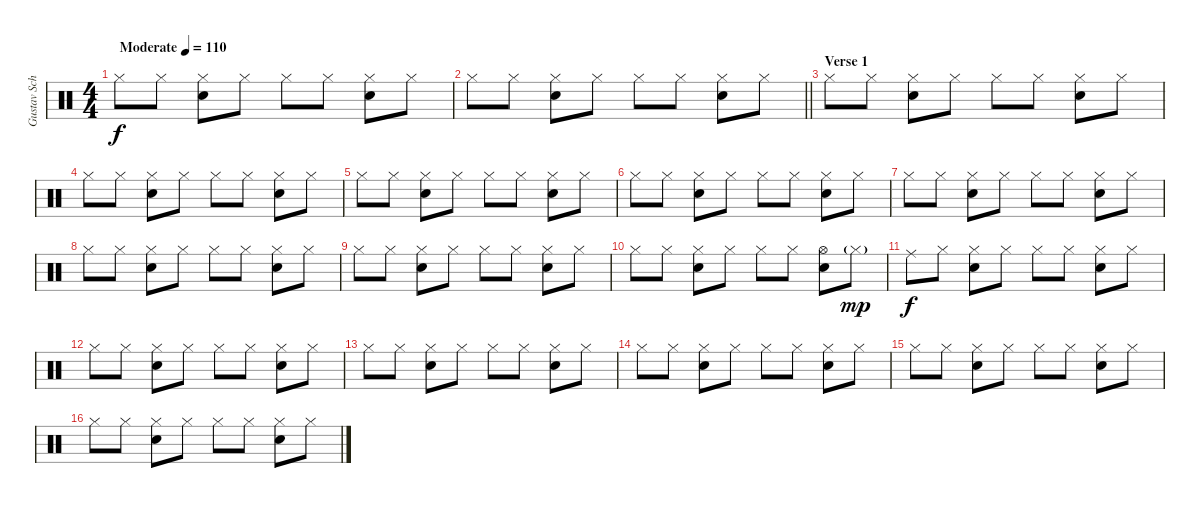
\track ("Gustav Schafer" "Gustav Sch") {instrument percussion}
\staff {score}
\articulation defaults
\ts (4 4)
\tempo (110 "Moderate")
\clef neutral
\ks c "Hi-Hat (closed)".8{dy f} "Hi-Hat (closed)".8
("Hi-Hat (closed)" "Snare (hit) 2").8 "Hi-Hat (closed)".8 "Hi-Hat (closed)".8 "Hi-Hat (closed)".8 ("Hi-Hat (closed)" "Snare (hit) 2").8 "Hi-Hat (closed)".8 |
\barLineRight lightlight "Hi-Hat (closed)".8 "Hi-Hat (closed)".8
("Hi-Hat (closed)" "Snare (hit) 2").8 "Hi-Hat (closed)".8 "Hi-Hat (closed)".8 "Hi-Hat (closed)".8 ("Hi-Hat (closed)" "Snare (hit) 2").8 "Hi-Hat (closed)".8 |
\section ("" "Verse 1")
"Hi-Hat (closed)".8 "Hi-Hat (closed)".8 ("Hi-Hat (closed)" "Snare (hit) 2").8 "Hi-Hat (closed)".8 "Hi-Hat (closed)".8 "Hi-Hat (closed)".8 ("Hi-Hat (closed)" "Snare (hit) 2").8 "Hi-Hat (closed)".8 |
"Hi-Hat (closed)".8 "Hi-Hat (closed)".8 ("Hi-Hat (closed)" "Snare (hit) 2").8 "Hi-Hat (closed)".8 "Hi-Hat (closed)".8 "Hi-Hat (closed)".8 ("Hi-Hat (closed)" "Snare (hit) 2").8 "Hi-Hat (closed)".8 |
"Hi-Hat (closed)".8 "Hi-Hat (closed)".8 ("Hi-Hat (closed)" "Snare (hit) 2").8 "Hi-Hat (closed)".8 "Hi-Hat (closed)".8 "Hi-Hat (closed)".8 ("Hi-Hat (closed)" "Snare (hit) 2").8 "Hi-Hat (closed)".8 |
"Hi-Hat (closed)".8 "Hi-Hat (closed)".8 ("Hi-Hat (closed)" "Snare (hit) 2").8 "Hi-Hat (closed)".8 "Hi-Hat (closed)".8 "Hi-Hat (closed)".8 ("Hi-Hat (closed)" "Snare (hit) 2").8 "Hi-Hat (closed)".8 |
"Hi-Hat (closed)".8 "Hi-Hat (closed)".8 ("Hi-Hat (closed)" "Snare (hit) 2").8 "Hi-Hat (closed)".8 "Hi-Hat (closed)".8 "Hi-Hat (closed)".8 ("Hi-Hat (closed)" "Snare (hit) 2").8 "Hi-Hat (closed)".8 |
"Hi-Hat (closed)".8 "Hi-Hat (closed)".8 ("Hi-Hat (closed)" "Snare (hit) 2").8 "Hi-Hat (closed)".8 "Hi-Hat (closed)".8 "Hi-Hat (closed)".8 ("Hi-Hat (closed)" "Snare (hit) 2").8 "Hi-Hat (closed)".8 |
"Hi-Hat (closed)".8 "Hi-Hat (closed)".8 ("Hi-Hat (closed)" "Snare (hit) 2").8 "Hi-Hat (closed)".8 "Hi-Hat (closed)".8 "Hi-Hat (closed)".8 ("Hi-Hat (closed)" "Snare (hit) 2").8 "Hi-Hat (closed)".8 |
"Hi-Hat (closed)".8 "Hi-Hat (closed)".8 ("Hi-Hat (closed)" "Snare (hit) 2").8 "Hi-Hat (closed)".8 "Hi-Hat (closed)".8 "Hi-Hat (closed)".8 ("Hi-Hat (open)" "Snare (hit) 2").8 "Hi-Hat (closed)"{g}.8{dy mp} |
"Ride (middle)".8{dy f} "Hi-Hat (closed)".8 ("Hi-Hat (closed)" "Snare (hit) 2").8 "Hi-Hat (closed)".8 "Hi-Hat (closed)".8 "Hi-Hat (closed)".8 ("Hi-Hat (closed)" "Snare (hit) 2").8 "Hi-Hat (closed)".8 |
"Hi-Hat (closed)".8 "Hi-Hat (closed)".8 ("Hi-Hat (closed)" "Snare (hit) 2").8 "Hi-Hat (closed)".8 "Hi-Hat (closed)".8 "Hi-Hat (closed)".8 ("Hi-Hat (closed)" "Snare (hit) 2").8 "Hi-Hat (closed)".8 |
"Hi-Hat (closed)".8 "Hi-Hat (closed)".8 ("Hi-Hat (closed)" "Snare (hit) 2").8 "Hi-Hat (closed)".8 "Hi-Hat (closed)".8 "Hi-Hat (closed)".8 ("Hi-Hat (closed)" "Snare (hit) 2").8 "Hi-Hat (closed)".8 |
"Hi-Hat (closed)".8 "Hi-Hat (closed)".8 ("Hi-Hat (closed)" "Snare (hit) 2").8 "Hi-Hat (closed)".8 "Hi-Hat (closed)".8 "Hi-Hat (closed)".8 ("Hi-Hat (closed)" "Snare (hit) 2").8 "Hi-Hat (closed)".8 |
"Hi-Hat (closed)".8 "Hi-Hat (closed)".8 ("Hi-Hat (closed)" "Snare (hit) 2").8 "Hi-Hat (closed)".8 "Hi-Hat (closed)".8 "Hi-Hat (closed)".8 ("Hi-Hat (closed)" "Snare (hit) 2").8 "Hi-Hat (closed)".8 |
"Hi-Hat (closed)".8 "Hi-Hat (closed)".8 ("Hi-Hat (closed)" "Snare (hit) 2").8 "Hi-Hat (closed)".8 "Hi-Hat (closed)".8 "Hi-Hat (closed)".8 ("Hi-Hat (closed)" "Snare (hit) 2").8 "Hi-Hat (closed)".8
